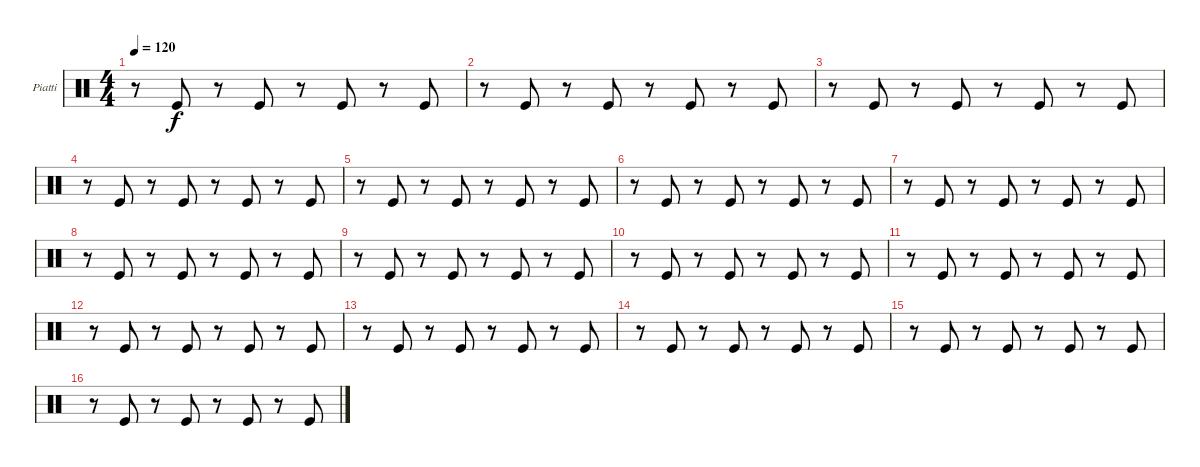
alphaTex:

\defaultSystemsLayout 4
\bracketExtendMode groupsimilarinstruments
\firstSystemTrackNameOrientation horizontal
\otherSystemsTrackNameOrientation horizontal
\track ("Piatti" "Piatti") {instrument percussion}
\staff {score}
\articulation defaults
\ts (4 4)
\tempo 120
\clef neutral
\ks c
r.8{dy f} "Kick (hit)".8 r.8 "Kick (hit)".8 r.8 "Kick (hit)".8 r.8 "Kick (hit)".8 |
r.8 "Kick (hit)".8 r.8 "Kick (hit)".8 r.8 "Kick (hit)".8 r.8 "Kick (hit)".8 |
r.8 "Kick (hit)".8 r.8 "Kick (hit)".8 r.8 "Kick (hit)".8 r.8 "Kick (hit)".8 |
r.8 "Kick (hit)".8 r.8 "Kick (hit)".8 r.8 "Kick (hit)".8 r.8 "Kick (hit)".8 |
r.8 "Kick (hit)".8 r.8 "Kick (hit)".8 r.8 "Kick (hit)".8 r.8 "Kick (hit)".8 |
r.8 "Kick (hit)".8 r.8 "Kick (hit)".8 r.8 "Kick (hit)".8 r.8 "Kick (hit)".8 |
r.8 "Kick (hit)".8 r.8 "Kick (hit)".8 r.8 "Kick (hit)".8 r.8 "Kick (hit)".8 |
r.8 "Kick (hit)".8 r.8 "Kick (hit)".8 r.8 "Kick (hit)".8 r.8 "Kick (hit)".8 |
r.8 "Kick (hit)".8 r.8 "Kick (hit)".8 r.8 "Kick (hit)".8 r.8 "Kick (hit)".8 |
r.8 "Kick (hit)".8 r.8 "Kick (hit)".8 r.8 "Kick (hit)".8 r.8 "Kick (hit)".8 |
r.8 "Kick (hit)".8 r.8 "Kick (hit)".8 r.8 "Kick (hit)".8 r.8 "Kick (hit)".8 |
r.8 "Kick (hit)".8 r.8 "Kick (hit)".8 r.8 "Kick (hit)".8 r.8 "Kick (hit)".8 |
r.8 "Kick (hit)".8 r.8 "Kick (hit)".8 r.8 "Kick (hit)".8 r.8 "Kick (hit)".8 |
r.8 "Kick (hit)".8 r.8 "Kick (hit)".8 r.8 "Kick (hit)".8 r.8 "Kick (hit)".8 |
r.8 "Kick (hit)".8 r.8 "Kick (hit)".8 r.8 "Kick (hit)".8 r.8 "Kick (hit)".8 |
r.8 "Kick (hit)".8 r.8 "Kick (hit)".8 r.8 "Kick (hit)".8 r.8 "Kick (hit)".8
